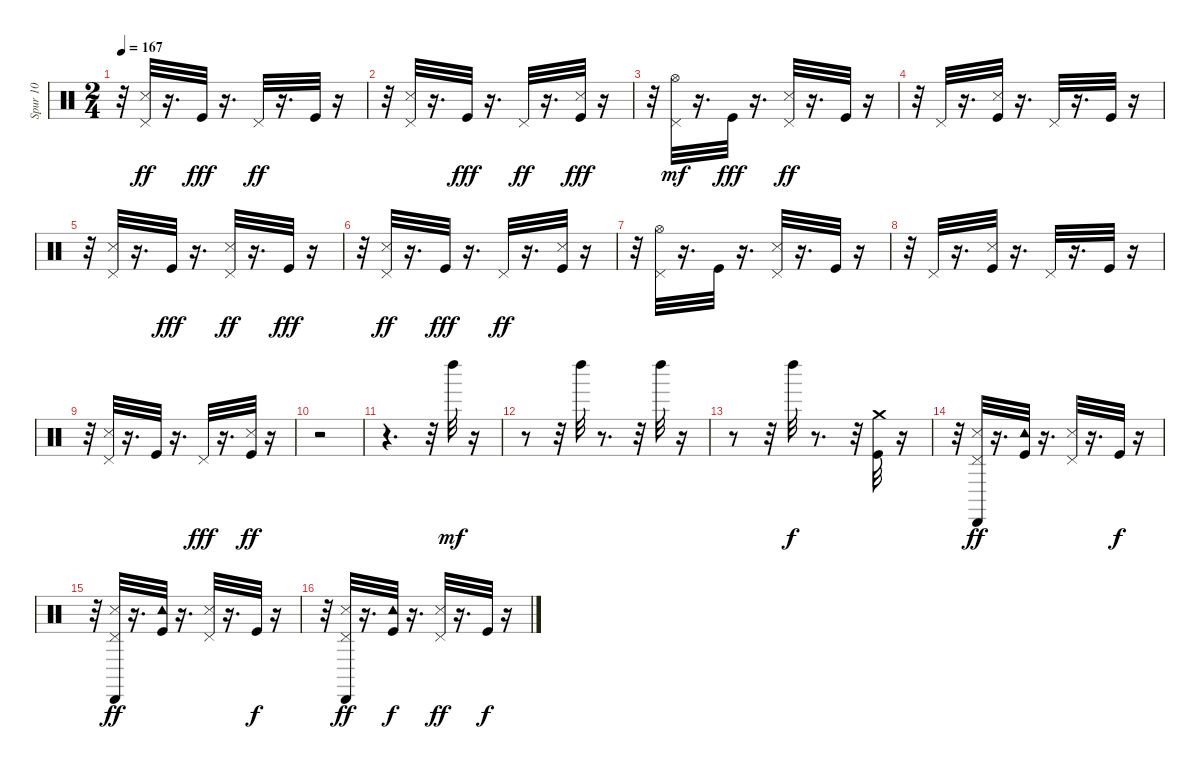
\track ("Spur 10" "Spur 10") {instrument percussion}
\staff {score}
\articulation defaults
\ts (2 4)
\tempo 167
\clef neutral
\ks c
r.32{dy fff} ("Snare (side stick) 3" "Pedal Hi-Hat (hit)").32{dy ff} r.16{d} "Kick (hit)".32{dy fff} r.16{d} "Pedal Hi-Hat (hit)".32{dy ff} r.16{d} "Kick (hit)".32 r.16 |
r.32 ("Pedal Hi-Hat (hit)" "Snare (side stick) 3").32 r.16{d} "Kick (hit)".32{dy fff} r.16{d} "Pedal Hi-Hat (hit)".32{dy ff} r.16{d} ("Snare (side stick) 3" "Kick (hit)").32{dy fff} r.16 |
r.32 ("Pedal Hi-Hat (hit)" "Hi-Hat (open)").32{dy mf} r.16{d} "Kick (hit)".32{dy fff} r.16{d} ("Snare (side stick) 3" "Pedal Hi-Hat (hit)").32{dy ff} r.16{d} "Kick (hit)".32 r.16 |
r.32 "Pedal Hi-Hat (hit)".32 r.16{d} ("Kick (hit)" "Snare (side stick) 3").32 r.16{d} "Pedal Hi-Hat (hit)".32 r.16{d} "Kick (hit)".32 r.16 |
r.32 ("Snare (side stick) 3" "Pedal Hi-Hat (hit)").32 r.16{d} "Kick (hit)".32{dy fff} r.16{d} ("Snare (side stick) 3" "Pedal Hi-Hat (hit)").32{dy ff} r.16{d} "Kick (hit)".32{dy fff} r.16 |
r.32 ("Snare (side stick) 3" "Pedal Hi-Hat (hit)").32{dy ff} r.16{d} "Kick (hit)".32{dy fff} r.16{d} "Pedal Hi-Hat (hit)".32{dy ff} r.16{d} ("Snare (side stick) 3" "Kick (hit)").32 r.16 |
r.32 ("Hi-Hat (open)" "Pedal Hi-Hat (hit)").32 r.16{d} "Kick (hit)".32 r.16{d} ("Pedal Hi-Hat (hit)" "Snare (side stick) 3").32 r.16{d} "Kick (hit)".32 r.16 |
r.32 "Pedal Hi-Hat (hit)".32 r.16{d} ("Kick (hit)" "Snare (side stick) 3").32 r.16{d} "Pedal Hi-Hat (hit)".32 r.16{d} "Kick (hit)".32 r.16 |
r.32 ("Snare (side stick) 3" "Pedal Hi-Hat (hit)").32 r.16{d} "Kick (hit)".32 r.16{d} "Pedal Hi-Hat (hit)".32{dy fff} r.16{d} ("Kick (hit)" "Snare (side stick) 3").32{dy ff} r.16 |
r.2 |
r.4{d} r.32 "Left Maraca (hit)".32{dy mf} r.16 |
r.8 r.32 "Left Maraca (hit)".32 r.8{d} r.32 "Left Maraca (hit)".32 r.16 |
r.8 r.32 "Left Maraca (hit)".32{dy f} r.8{d} r.32 ("Kick (hit)" "Crash medium (hit)").32 r.16 |
r.32 ("Pedal Hi-Hat (hit)" "Cabasa (hit)" "Snare (side stick) 3").32{dy ff} r.16{d} ("Tambourine (hit)" "Kick (hit)").32 r.16{d} ("Pedal Hi-Hat (hit)" "Snare (side stick) 3").32 r.16{d} "Kick (hit)".32{dy f} r.16 |
r.32 ("Snare (side stick) 3" "Pedal Hi-Hat (hit)" "Cabasa (hit)").32{dy ff} r.16{d} ("Kick (hit)" "Tambourine (hit)").32 r.16{d} ("Snare (side stick) 3" "Pedal Hi-Hat (hit)").32 r.16{d} "Kick (hit)".32{dy f} r.16 |
r.32 ("Snare (side stick) 3" "Pedal Hi-Hat (hit)" "Cabasa (hit)").32{dy ff} r.16{d} ("Kick (hit)" "Tambourine (hit)").32{dy f} r.16{d} ("Snare (side stick) 3" "Pedal Hi-Hat (hit)").32{dy ff} r.16{d} "Kick (hit)".32{dy f} r.16
